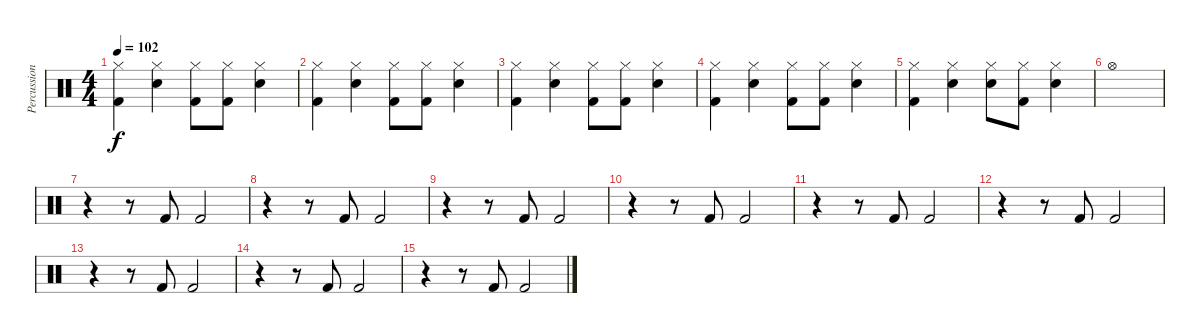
\track ("Percussion" "Percussion") {instrument percussion}
\staff {score}
\articulation defaults
\ts (4 4)
\tempo 102
\clef neutral
\ks c
("Hi-Hat (closed)" "Kick (hit) 2").4{dy f} ("Hi-Hat (closed)" "Snare (hit) 2").4 ("Hi-Hat (closed)" "Kick (hit) 2").8 ("Hi-Hat (closed)" "Kick (hit) 2").8 ("Hi-Hat (closed)" "Snare (hit) 2").4 |
("Hi-Hat (closed)" "Kick (hit) 2").4 ("Hi-Hat (closed)" "Snare (hit) 2").4 ("Hi-Hat (closed)" "Kick (hit) 2").8 ("Hi-Hat (closed)" "Kick (hit) 2").8 ("Hi-Hat (closed)" "Snare (hit) 2").4 |
("Hi-Hat (closed)" "Kick (hit) 2").4 ("Hi-Hat (closed)" "Snare (hit) 2").4 ("Hi-Hat (closed)" "Kick (hit) 2").8 ("Hi-Hat (closed)" "Kick (hit) 2").8 ("Hi-Hat (closed)" "Snare (hit) 2").4 |
("Hi-Hat (closed)" "Kick (hit) 2").4 ("Hi-Hat (closed)" "Snare (hit) 2").4 ("Hi-Hat (closed)" "Kick (hit) 2").8 ("Hi-Hat (closed)" "Kick (hit) 2").8 ("Hi-Hat (closed)" "Snare (hit) 2").4 |
("Hi-Hat (closed)" "Kick (hit) 2").4 ("Hi-Hat (closed)" "Snare (hit) 2").4 ("Hi-Hat (closed)" "Snare (hit) 2").8 ("Hi-Hat (closed)" "Kick (hit) 2").8 ("Hi-Hat (closed)" "Snare (hit) 2").4 |
"Hi-Hat (open)".1 |
r.4 r.8 "Kick (hit) 2".8 "Kick (hit) 2".2 |
r.4 r.8 "Kick (hit) 2".8 "Kick (hit) 2".2 |
r.4 r.8 "Kick (hit) 2".8 "Kick (hit) 2".2 |
r.4 r.8 "Kick (hit) 2".8 "Kick (hit) 2".2 |
r.4 r.8 "Kick (hit) 2".8 "Kick (hit) 2".2 |
r.4 r.8 "Kick (hit) 2".8 "Kick (hit) 2".2 |
r.4 r.8 "Kick (hit) 2".8 "Kick (hit) 2".2 |
r.4 r.8 "Kick (hit) 2".8 "Kick (hit) 2".2 |
r.4 r.8 "Kick (hit) 2".8 "Kick (hit) 2".2
